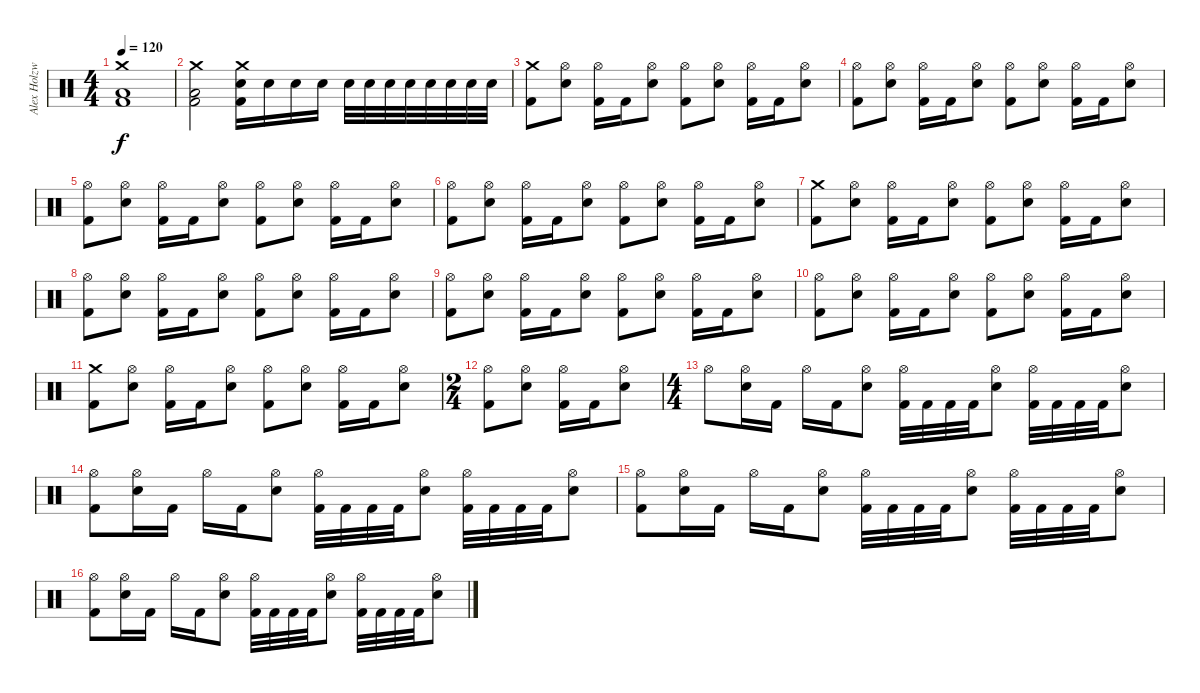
\track ("Alex Holzwarth - Drums" "Alex Holzw") {instrument percussion}
\staff {score}
\articulation defaults
\ts (4 4)
\tempo 120
\clef neutral
\ks c
("Crash medium (hit)" "Low Floor Tom (hit)" "Kick (hit) 2").1{dy f} |
("Crash medium (hit)" "Low Floor Tom (hit)" "Kick (hit) 2").2 ("Crash medium (hit)" "Electric Snare (hit)" "Kick (hit) 2").16 "Electric Snare (hit)".16 "Electric Snare (hit)".16 "Electric Snare (hit)".16 "Electric Snare (hit)".32 "Electric Snare (hit)".32 "Electric Snare (hit)".32 "Electric Snare (hit)".32 "Electric Snare (hit)".32 "Electric Snare (hit)".32 "Electric Snare (hit)".32 "Electric Snare (hit)".32 |
("Crash medium (hit)" "Kick (hit) 2").8 ("Hi-Hat (open)" "Electric Snare (hit)").8 ("Hi-Hat (open)" "Kick (hit) 2").16 "Kick (hit) 2".16 ("Hi-Hat (open)" "Electric Snare (hit)").8 ("Hi-Hat (open)" "Kick (hit) 2").8 ("Hi-Hat (open)" "Electric Snare (hit)").8 ("Hi-Hat (open)" "Kick (hit) 2").16 "Kick (hit) 2".16 ("Hi-Hat (open)" "Electric Snare (hit)").8 |
("Hi-Hat (open)" "Kick (hit) 2").8 ("Hi-Hat (open)" "Electric Snare (hit)").8 ("Hi-Hat (open)" "Kick (hit) 2").16 "Kick (hit) 2".16 ("Hi-Hat (open)" "Electric Snare (hit)").8 ("Hi-Hat (open)" "Kick (hit) 2").8 ("Hi-Hat (open)" "Electric Snare (hit)").8 ("Hi-Hat (open)" "Kick (hit) 2").16 "Kick (hit) 2".16 ("Hi-Hat (open)" "Electric Snare (hit)").8 |
("Hi-Hat (open)" "Kick (hit) 2").8 ("Hi-Hat (open)" "Electric Snare (hit)").8 ("Hi-Hat (open)" "Kick (hit) 2").16 "Kick (hit) 2".16 ("Hi-Hat (open)" "Electric Snare (hit)").8 ("Hi-Hat (open)" "Kick (hit) 2").8 ("Hi-Hat (open)" "Electric Snare (hit)").8 ("Hi-Hat (open)" "Kick (hit) 2").16 "Kick (hit) 2".16 ("Hi-Hat (open)" "Electric Snare (hit)").8 |
("Hi-Hat (open)" "Kick (hit) 2").8 ("Hi-Hat (open)" "Electric Snare (hit)").8 ("Hi-Hat (open)" "Kick (hit) 2").16 "Kick (hit) 2".16 ("Hi-Hat (open)" "Electric Snare (hit)").8 ("Hi-Hat (open)" "Kick (hit) 2").8 ("Hi-Hat (open)" "Electric Snare (hit)").8 ("Hi-Hat (open)" "Kick (hit) 2").16 "Kick (hit) 2".16 ("Hi-Hat (open)" "Electric Snare (hit)").8 |
("Crash medium (hit)" "Kick (hit) 2").8 ("Hi-Hat (open)" "Electric Snare (hit)").8 ("Hi-Hat (open)" "Kick (hit) 2").16 "Kick (hit) 2".16 ("Hi-Hat (open)" "Electric Snare (hit)").8 ("Hi-Hat (open)" "Kick (hit) 2").8 ("Hi-Hat (open)" "Electric Snare (hit)").8 ("Hi-Hat (open)" "Kick (hit) 2").16 "Kick (hit) 2".16 ("Hi-Hat (open)" "Electric Snare (hit)").8 |
("Hi-Hat (open)" "Kick (hit) 2").8 ("Hi-Hat (open)" "Electric Snare (hit)").8 ("Hi-Hat (open)" "Kick (hit) 2").16 "Kick (hit) 2".16 ("Hi-Hat (open)" "Electric Snare (hit)").8 ("Hi-Hat (open)" "Kick (hit) 2").8 ("Hi-Hat (open)" "Electric Snare (hit)").8 ("Hi-Hat (open)" "Kick (hit) 2").16 "Kick (hit) 2".16 ("Hi-Hat (open)" "Electric Snare (hit)").8 |
("Hi-Hat (open)" "Kick (hit) 2").8 ("Hi-Hat (open)" "Electric Snare (hit)").8 ("Hi-Hat (open)" "Kick (hit) 2").16 "Kick (hit) 2".16 ("Hi-Hat (open)" "Electric Snare (hit)").8 ("Hi-Hat (open)" "Kick (hit) 2").8 ("Hi-Hat (open)" "Electric Snare (hit)").8 ("Hi-Hat (open)" "Kick (hit) 2").16 "Kick (hit) 2".16 ("Hi-Hat (open)" "Electric Snare (hit)").8 |
("Hi-Hat (open)" "Kick (hit) 2").8 ("Hi-Hat (open)" "Electric Snare (hit)").8 ("Hi-Hat (open)" "Kick (hit) 2").16 "Kick (hit) 2".16 ("Hi-Hat (open)" "Electric Snare (hit)").8 ("Hi-Hat (open)" "Kick (hit) 2").8 ("Hi-Hat (open)" "Electric Snare (hit)").8 ("Hi-Hat (open)" "Kick (hit) 2").16 "Kick (hit) 2".16 ("Hi-Hat (open)" "Electric Snare (hit)").8 |
("Crash medium (hit)" "Kick (hit) 2").8 ("Hi-Hat (open)" "Electric Snare (hit)").8 ("Hi-Hat (open)" "Kick (hit) 2").16 "Kick (hit) 2".16 ("Hi-Hat (open)" "Electric Snare (hit)").8 ("Hi-Hat (open)" "Kick (hit) 2").8 ("Hi-Hat (open)" "Electric Snare (hit)").8 ("Hi-Hat (open)" "Kick (hit) 2").16 "Kick (hit) 2".16 ("Hi-Hat (open)" "Electric Snare (hit)").8 |
\ts (2 4)
("Hi-Hat (open)" "Kick (hit) 2").8 ("Hi-Hat (open)" "Electric Snare (hit)").8 ("Hi-Hat (open)" "Kick (hit) 2").16 "Kick (hit) 2".16 ("Hi-Hat (open)" "Electric Snare (hit)").8 |
\ts (4 4)
"Hi-Hat (open)".8 ("Hi-Hat (open)" "Electric Snare (hit)").16 "Kick (hit) 2".16 "Hi-Hat (open)".16 "Kick (hit) 2".16 ("Hi-Hat (open)" "Electric Snare (hit)").8 ("Hi-Hat (open)" "Kick (hit) 2").32 "Kick (hit) 2".32 "Kick (hit) 2".32 "Kick (hit) 2".32 ("Hi-Hat (open)" "Electric Snare (hit)").8 ("Hi-Hat (open)" "Kick (hit) 2").32 "Kick (hit) 2".32 "Kick (hit) 2".32 "Kick (hit) 2".32 ("Hi-Hat (open)" "Electric Snare (hit)").8 |
("Hi-Hat (open)" "Kick (hit) 2").8 ("Hi-Hat (open)" "Electric Snare (hit)").16 "Kick (hit) 2".16 "Hi-Hat (open)".16 "Kick (hit) 2".16 ("Hi-Hat (open)" "Electric Snare (hit)").8 ("Hi-Hat (open)" "Kick (hit) 2").32 "Kick (hit) 2".32 "Kick (hit) 2".32 "Kick (hit) 2".32 ("Hi-Hat (open)" "Electric Snare (hit)").8 ("Hi-Hat (open)" "Kick (hit) 2").32 "Kick (hit) 2".32 "Kick (hit) 2".32 "Kick (hit) 2".32 ("Hi-Hat (open)" "Electric Snare (hit)").8 |
("Hi-Hat (open)" "Kick (hit) 2").8 ("Hi-Hat (open)" "Electric Snare (hit)").16 "Kick (hit) 2".16 "Hi-Hat (open)".16 "Kick (hit) 2".16 ("Hi-Hat (open)" "Electric Snare (hit)").8 ("Hi-Hat (open)" "Kick (hit) 2").32 "Kick (hit) 2".32 "Kick (hit) 2".32 "Kick (hit) 2".32 ("Hi-Hat (open)" "Electric Snare (hit)").8 ("Hi-Hat (open)" "Kick (hit) 2").32 "Kick (hit) 2".32 "Kick (hit) 2".32 "Kick (hit) 2".32 ("Hi-Hat (open)" "Electric Snare (hit)").8 |
("Hi-Hat (open)" "Kick (hit) 2").8 ("Hi-Hat (open)" "Electric Snare (hit)").16 "Kick (hit) 2".16 "Hi-Hat (open)".16 "Kick (hit) 2".16 ("Hi-Hat (open)" "Electric Snare (hit)").8 ("Hi-Hat (open)" "Kick (hit) 2").32 "Kick (hit) 2".32 "Kick (hit) 2".32 "Kick (hit) 2".32 ("Hi-Hat (open)" "Electric Snare (hit)").8 ("Hi-Hat (open)" "Kick (hit) 2").32 "Kick (hit) 2".32 "Kick (hit) 2".32 "Kick (hit) 2".32 ("Hi-Hat (open)" "Electric Snare (hit)").8
